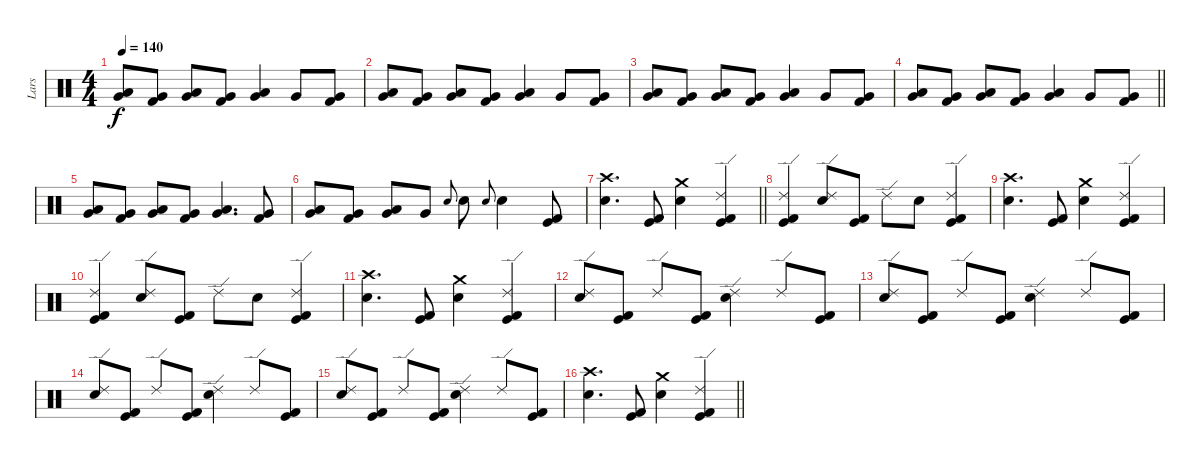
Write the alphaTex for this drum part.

\track ("Lars" "Lars") {instrument percussion}
\staff {score}
\articulation defaults
\ts (4 4)
\tempo 140
\clef neutral
\ks c
("Low Tom (hit)" "Very Low Tom (hit)").8{dy f} ("Very Low Tom (hit)" "Kick (hit) 2").8 ("Low Tom (hit)" "Very Low Tom (hit)").8 ("Very Low Tom (hit)" "Kick (hit) 2").8 ("Low Tom (hit)" "Very Low Tom (hit)").4 "Very Low Tom (hit)".8 ("Very Low Tom (hit)" "Kick (hit) 2").8 |
("Low Tom (hit)" "Very Low Tom (hit)").8 ("Very Low Tom (hit)" "Kick (hit) 2").8 ("Low Tom (hit)" "Very Low Tom (hit)").8 ("Very Low Tom (hit)" "Kick (hit) 2").8 ("Low Tom (hit)" "Very Low Tom (hit)").4 "Very Low Tom (hit)".8 ("Very Low Tom (hit)" "Kick (hit) 2").8 |
("Low Tom (hit)" "Very Low Tom (hit)").8 ("Very Low Tom (hit)" "Kick (hit) 2").8 ("Low Tom (hit)" "Very Low Tom (hit)").8 ("Very Low Tom (hit)" "Kick (hit) 2").8 ("Low Tom (hit)" "Very Low Tom (hit)").4 "Very Low Tom (hit)".8 ("Very Low Tom (hit)" "Kick (hit) 2").8 |
\barLineRight lightlight
("Low Tom (hit)" "Very Low Tom (hit)").8 ("Very Low Tom (hit)" "Kick (hit) 2").8 ("Low Tom (hit)" "Very Low Tom (hit)").8 ("Very Low Tom (hit)" "Kick (hit) 2").8 ("Low Tom (hit)" "Very Low Tom (hit)").4 "Very Low Tom (hit)".8 ("Very Low Tom (hit)" "Kick (hit) 2").8 |
\section ("" "")
("Low Tom (hit)" "Very Low Tom (hit)").8 ("Very Low Tom (hit)" "Kick (hit) 2").8 ("Low Tom (hit)" "Very Low Tom (hit)").8 ("Very Low Tom (hit)" "Kick (hit) 2").8 ("Low Tom (hit)" "Very Low Tom (hit)").4{d} ("Very Low Tom (hit)" "Kick (hit) 2").8 |
("Low Tom (hit)" "Very Low Tom (hit)").8 ("Very Low Tom (hit)" "Kick (hit) 2").8 ("Low Tom (hit)" "Very Low Tom (hit)").8 "Very Low Tom (hit)".8 "Electric Snare (hit)".8{gr onbeat} "Electric Snare (hit)".8 "Electric Snare (hit)".8{gr onbeat} "Electric Snare (hit)".4 ("Kick (hit)" "Kick (hit) 2").8 |
\barLineRight lightlight
("Crash high (hit)" "Electric Snare (hit)").4{d} ("Kick (hit)" "Kick (hit) 2").8 ("Crash medium (hit)" "Electric Snare (hit)").4 ("Ride (edge) 2" "Kick (hit)" "Kick (hit) 2").4 |
\section ("" "")
("Ride (edge) 2" "Kick (hit)" "Kick (hit) 2").4 ("Ride (edge) 2" "Electric Snare (hit)").8 ("Kick (hit)" "Kick (hit) 2").8 "Ride (edge) 2".8 "Electric Snare (hit)".8 ("Ride (edge) 2" "Kick (hit)" "Kick (hit) 2").4 |
("Crash high (hit)" "Electric Snare (hit)").4{d} ("Kick (hit)" "Kick (hit) 2").8 ("Crash medium (hit)" "Electric Snare (hit)").4 ("Ride (edge) 2" "Kick (hit)" "Kick (hit) 2").4 |
("Ride (edge) 2" "Kick (hit)" "Kick (hit) 2").4 ("Ride (edge) 2" "Electric Snare (hit)").8 ("Kick (hit)" "Kick (hit) 2").8 "Ride (edge) 2".8 "Electric Snare (hit)".8 ("Ride (edge) 2" "Kick (hit)" "Kick (hit) 2").4 |
("Crash high (hit)" "Electric Snare (hit)").4{d} ("Kick (hit)" "Kick (hit) 2").8 ("Crash medium (hit)" "Electric Snare (hit)").4 ("Ride (edge) 2" "Kick (hit)" "Kick (hit) 2").4 |
("Ride (edge) 2" "Electric Snare (hit)").8 ("Kick (hit)" "Kick (hit) 2").8 "Ride (edge) 2".8 ("Kick (hit)" "Kick (hit) 2").8 ("Ride (edge) 2" "Electric Snare (hit)").4 "Ride (edge) 2".8 ("Kick (hit)" "Kick (hit) 2").8 |
("Ride (edge) 2" "Electric Snare (hit)").8 ("Kick (hit)" "Kick (hit) 2").8 "Ride (edge) 2".8 ("Kick (hit)" "Kick (hit) 2").8 ("Ride (edge) 2" "Electric Snare (hit)").4 "Ride (edge) 2".8 ("Kick (hit)" "Kick (hit) 2").8 |
("Ride (edge) 2" "Electric Snare (hit)").8 ("Kick (hit)" "Kick (hit) 2").8 "Ride (edge) 2".8 ("Kick (hit)" "Kick (hit) 2").8 ("Ride (edge) 2" "Electric Snare (hit)").4 "Ride (edge) 2".8 ("Kick (hit)" "Kick (hit) 2").8 |
("Ride (edge) 2" "Electric Snare (hit)").8 ("Kick (hit)" "Kick (hit) 2").8 "Ride (edge) 2".8 ("Kick (hit)" "Kick (hit) 2").8 ("Ride (edge) 2" "Electric Snare (hit)").4 "Ride (edge) 2".8 ("Kick (hit)" "Kick (hit) 2").8 |
\barLineRight lightlight
("Crash high (hit)" "Electric Snare (hit)").4{d} ("Kick (hit)" "Kick (hit) 2").8 ("Crash medium (hit)" "Electric Snare (hit)").4 ("Ride (edge) 2" "Kick (hit)" "Kick (hit) 2").4
